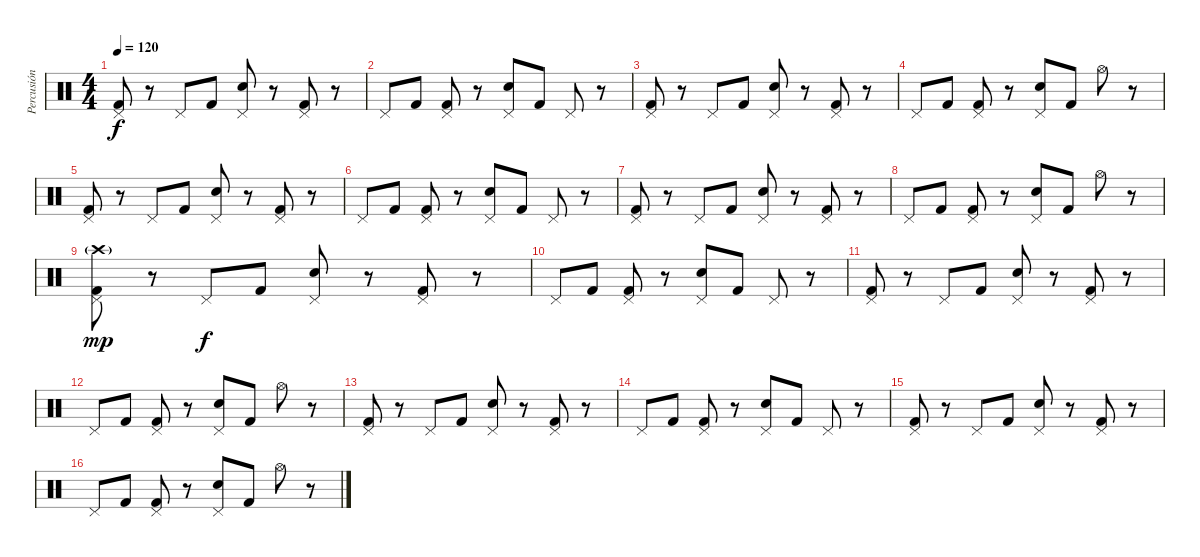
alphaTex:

\track ("Percusión" "Percusión") {instrument percussion}
\staff {score}
\articulation defaults
\ts (4 4)
\tempo 120
\clef neutral
\ks c
("Pedal Hi-Hat (hit)" "Kick (hit) 2").8{dy f} r.8 "Pedal Hi-Hat (hit)".8 "Kick (hit) 2".8 ("Pedal Hi-Hat (hit)" "Electric Snare (hit)").8 r.8 ("Pedal Hi-Hat (hit)" "Kick (hit) 2").8 r.8 |
"Pedal Hi-Hat (hit)".8 "Kick (hit) 2".8 ("Pedal Hi-Hat (hit)" "Kick (hit) 2").8 r.8 ("Pedal Hi-Hat (hit)" "Electric Snare (hit)").8 "Kick (hit) 2".8 "Pedal Hi-Hat (hit)".8 r.8 |
("Pedal Hi-Hat (hit)" "Kick (hit) 2").8 r.8 "Pedal Hi-Hat (hit)".8 "Kick (hit) 2".8 ("Pedal Hi-Hat (hit)" "Electric Snare (hit)").8 r.8 ("Pedal Hi-Hat (hit)" "Kick (hit) 2").8 r.8 |
"Pedal Hi-Hat (hit)".8 "Kick (hit) 2".8 ("Pedal Hi-Hat (hit)" "Kick (hit) 2").8 r.8 ("Pedal Hi-Hat (hit)" "Electric Snare (hit)").8 "Kick (hit) 2".8 "Hi-Hat (open)".8 r.8 |
("Pedal Hi-Hat (hit)" "Kick (hit) 2").8 r.8 "Pedal Hi-Hat (hit)".8 "Kick (hit) 2".8 ("Pedal Hi-Hat (hit)" "Electric Snare (hit)").8 r.8 ("Pedal Hi-Hat (hit)" "Kick (hit) 2").8 r.8 |
"Pedal Hi-Hat (hit)".8 "Kick (hit) 2".8 ("Pedal Hi-Hat (hit)" "Kick (hit) 2").8 r.8 ("Pedal Hi-Hat (hit)" "Electric Snare (hit)").8 "Kick (hit) 2".8 "Pedal Hi-Hat (hit)".8 r.8 |
("Pedal Hi-Hat (hit)" "Kick (hit) 2").8 r.8 "Pedal Hi-Hat (hit)".8 "Kick (hit) 2".8 ("Pedal Hi-Hat (hit)" "Electric Snare (hit)").8 r.8 ("Pedal Hi-Hat (hit)" "Kick (hit) 2").8 r.8 |
"Pedal Hi-Hat (hit)".8 "Kick (hit) 2".8 ("Pedal Hi-Hat (hit)" "Kick (hit) 2").8 r.8 ("Pedal Hi-Hat (hit)" "Electric Snare (hit)").8 "Kick (hit) 2".8 "Hi-Hat (open)".8 r.8 |
("Crash high (hit)"{g} "Pedal Hi-Hat (hit)" "Kick (hit) 2").8{dy mp} r.8 "Pedal Hi-Hat (hit)".8{dy f} "Kick (hit) 2".8 ("Pedal Hi-Hat (hit)" "Electric Snare (hit)").8 r.8 ("Pedal Hi-Hat (hit)" "Kick (hit) 2").8 r.8 |
"Pedal Hi-Hat (hit)".8 "Kick (hit) 2".8 ("Pedal Hi-Hat (hit)" "Kick (hit) 2").8 r.8 ("Pedal Hi-Hat (hit)" "Electric Snare (hit)").8 "Kick (hit) 2".8 "Pedal Hi-Hat (hit)".8 r.8 |
("Pedal Hi-Hat (hit)" "Kick (hit) 2").8 r.8 "Pedal Hi-Hat (hit)".8 "Kick (hit) 2".8 ("Pedal Hi-Hat (hit)" "Electric Snare (hit)").8 r.8 ("Pedal Hi-Hat (hit)" "Kick (hit) 2").8 r.8 |
"Pedal Hi-Hat (hit)".8 "Kick (hit) 2".8 ("Pedal Hi-Hat (hit)" "Kick (hit) 2").8 r.8 ("Pedal Hi-Hat (hit)" "Electric Snare (hit)").8 "Kick (hit) 2".8 "Hi-Hat (open)".8 r.8 |
("Pedal Hi-Hat (hit)" "Kick (hit) 2").8 r.8 "Pedal Hi-Hat (hit)".8 "Kick (hit) 2".8 ("Pedal Hi-Hat (hit)" "Electric Snare (hit)").8 r.8 ("Pedal Hi-Hat (hit)" "Kick (hit) 2").8 r.8 |
"Pedal Hi-Hat (hit)".8 "Kick (hit) 2".8 ("Pedal Hi-Hat (hit)" "Kick (hit) 2").8 r.8 ("Pedal Hi-Hat (hit)" "Electric Snare (hit)").8 "Kick (hit) 2".8 "Pedal Hi-Hat (hit)".8 r.8 |
("Pedal Hi-Hat (hit)" "Kick (hit) 2").8 r.8 "Pedal Hi-Hat (hit)".8 "Kick (hit) 2".8 ("Pedal Hi-Hat (hit)" "Electric Snare (hit)").8 r.8 ("Pedal Hi-Hat (hit)" "Kick (hit) 2").8 r.8 |
"Pedal Hi-Hat (hit)".8 "Kick (hit) 2".8 ("Pedal Hi-Hat (hit)" "Kick (hit) 2").8 r.8 ("Pedal Hi-Hat (hit)" "Electric Snare (hit)").8 "Kick (hit) 2".8 "Hi-Hat (open)".8 r.8
